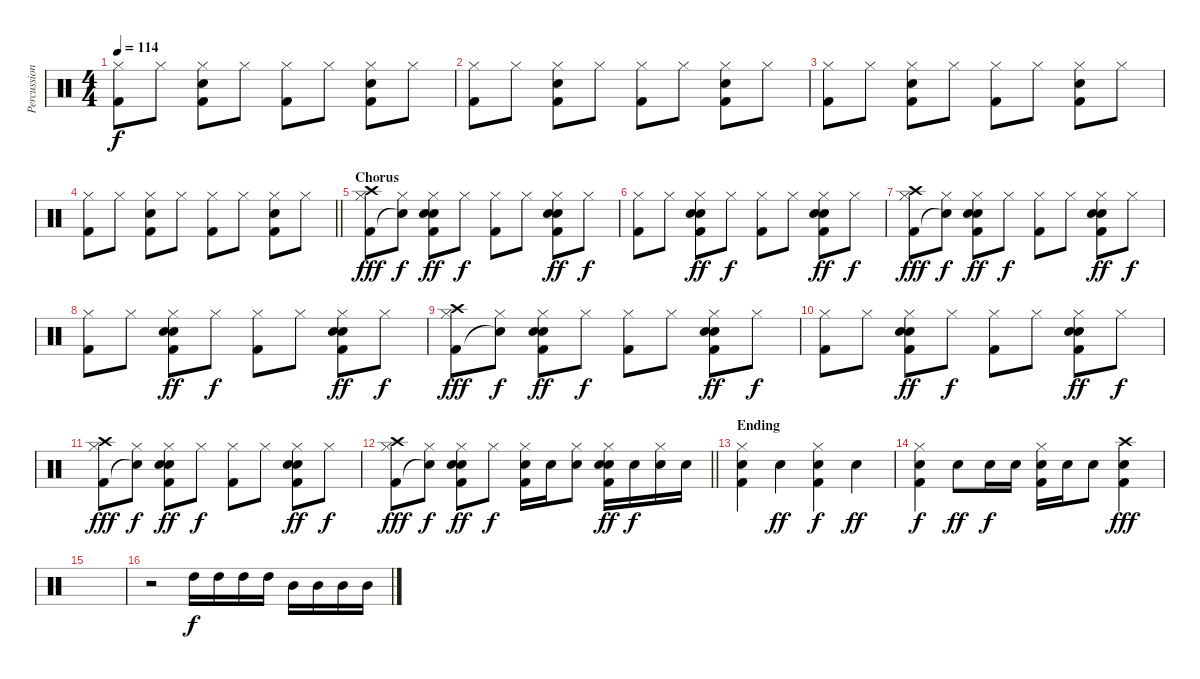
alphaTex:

\track ("Percussion" "Percussion") {instrument percussion}
\staff {score}
\articulation defaults
\ts (4 4)
\tempo 114
\clef neutral
\ks c
("Hi-Hat (closed)" "Kick (hit) 2").8{dy f} "Hi-Hat (closed)".8 ("Hi-Hat (closed)" "Snare (hit) 2" "Kick (hit) 2").8 "Hi-Hat (closed)".8 ("Hi-Hat (closed)" "Kick (hit) 2").8 "Hi-Hat (closed)".8 ("Hi-Hat (closed)" "Snare (hit) 2" "Kick (hit) 2").8 "Hi-Hat (closed)".8 |
("Hi-Hat (closed)" "Kick (hit) 2").8 "Hi-Hat (closed)".8 ("Hi-Hat (closed)" "Snare (hit) 2" "Kick (hit) 2").8 "Hi-Hat (closed)".8 ("Hi-Hat (closed)" "Kick (hit) 2").8 "Hi-Hat (closed)".8 ("Hi-Hat (closed)" "Snare (hit) 2" "Kick (hit) 2").8 "Hi-Hat (closed)".8 |
("Hi-Hat (closed)" "Kick (hit) 2").8 "Hi-Hat (closed)".8 ("Hi-Hat (closed)" "Snare (hit) 2" "Kick (hit) 2").8 "Hi-Hat (closed)".8 ("Hi-Hat (closed)" "Kick (hit) 2").8 "Hi-Hat (closed)".8 ("Hi-Hat (closed)" "Snare (hit) 2" "Kick (hit) 2").8 "Hi-Hat (closed)".8 |
\barLineRight lightlight
("Hi-Hat (closed)" "Kick (hit) 2").8 "Hi-Hat (closed)".8 ("Hi-Hat (closed)" "Snare (hit) 2" "Kick (hit) 2").8 "Hi-Hat (closed)".8 ("Hi-Hat (closed)" "Kick (hit) 2").8 "Hi-Hat (closed)".8 ("Hi-Hat (closed)" "Snare (hit) 2" "Kick (hit) 2").8 "Hi-Hat (closed)".8 |
\section ("" "Chorus")
("Hi-Hat (closed)" "Kick (hit) 2" "Crash high (hit)").8{dy fff} ("Hi-Hat (closed)" "Snare (hit)"{t}).8{dy f} ("Hand Clap (hit)" "Hi-Hat (closed)" "Snare (hit) 2" "Kick (hit) 2").8{dy ff} "Hi-Hat (closed)".8{dy f} ("Hi-Hat (closed)" "Kick (hit) 2").8 "Hi-Hat (closed)".8 ("Hand Clap (hit)" "Hi-Hat (closed)" "Snare (hit) 2" "Kick (hit) 2").8{dy ff} "Hi-Hat (closed)".8{dy f} |
("Hi-Hat (closed)" "Kick (hit) 2").8 "Hi-Hat (closed)".8 ("Hand Clap (hit)" "Hi-Hat (closed)" "Snare (hit) 2" "Kick (hit) 2").8{dy ff} "Hi-Hat (closed)".8{dy f} ("Hi-Hat (closed)" "Kick (hit) 2").8 "Hi-Hat (closed)".8 ("Hand Clap (hit)" "Hi-Hat (closed)" "Snare (hit) 2" "Kick (hit) 2").8{dy ff} "Hi-Hat (closed)".8{dy f} |
("Hi-Hat (closed)" "Kick (hit) 2" "Crash high (hit)").8{dy fff} ("Hi-Hat (closed)" "Snare (hit)"{t}).8{dy f} ("Hand Clap (hit)" "Hi-Hat (closed)" "Snare (hit) 2" "Kick (hit) 2").8{dy ff} "Hi-Hat (closed)".8{dy f} ("Hi-Hat (closed)" "Kick (hit) 2").8 "Hi-Hat (closed)".8 ("Hand Clap (hit)" "Hi-Hat (closed)" "Snare (hit) 2" "Kick (hit) 2").8{dy ff} "Hi-Hat (closed)".8{dy f} |
("Hi-Hat (closed)" "Kick (hit) 2").8 "Hi-Hat (closed)".8 ("Hand Clap (hit)" "Hi-Hat (closed)" "Snare (hit) 2" "Kick (hit) 2").8{dy ff} "Hi-Hat (closed)".8{dy f} ("Hi-Hat (closed)" "Kick (hit) 2").8 "Hi-Hat (closed)".8 ("Hand Clap (hit)" "Hi-Hat (closed)" "Snare (hit) 2" "Kick (hit) 2").8{dy ff} "Hi-Hat (closed)".8{dy f} |
("Hi-Hat (closed)" "Kick (hit) 2" "Crash high (hit)").8{dy fff} ("Hi-Hat (closed)" "Snare (hit)"{t}).8{dy f} ("Hand Clap (hit)" "Hi-Hat (closed)" "Snare (hit) 2" "Kick (hit) 2").8{dy ff} "Hi-Hat (closed)".8{dy f} ("Hi-Hat (closed)" "Kick (hit) 2").8 "Hi-Hat (closed)".8 ("Hand Clap (hit)" "Hi-Hat (closed)" "Snare (hit) 2" "Kick (hit) 2").8{dy ff} "Hi-Hat (closed)".8{dy f} |
("Hi-Hat (closed)" "Kick (hit) 2").8 "Hi-Hat (closed)".8 ("Hand Clap (hit)" "Hi-Hat (closed)" "Snare (hit) 2" "Kick (hit) 2").8{dy ff} "Hi-Hat (closed)".8{dy f} ("Hi-Hat (closed)" "Kick (hit) 2").8 "Hi-Hat (closed)".8 ("Hand Clap (hit)" "Hi-Hat (closed)" "Snare (hit) 2" "Kick (hit) 2").8{dy ff} "Hi-Hat (closed)".8{dy f} |
("Hi-Hat (closed)" "Kick (hit) 2" "Crash high (hit)").8{dy fff} ("Hi-Hat (closed)" "Snare (hit)"{t}).8{dy f} ("Hand Clap (hit)" "Hi-Hat (closed)" "Snare (hit) 2" "Kick (hit) 2").8{dy ff} "Hi-Hat (closed)".8{dy f} ("Hi-Hat (closed)" "Kick (hit) 2").8 "Hi-Hat (closed)".8 ("Hand Clap (hit)" "Hi-Hat (closed)" "Snare (hit) 2" "Kick (hit) 2").8{dy ff} "Hi-Hat (closed)".8{dy f} |
\barLineRight lightlight
("Hi-Hat (closed)" "Kick (hit) 2" "Crash high (hit)").8{dy fff} ("Hi-Hat (closed)" "Snare (hit)"{t}).8{dy f} ("Hand Clap (hit)" "Hi-Hat (closed)" "Snare (hit) 2" "Kick (hit) 2").8{dy ff} "Hi-Hat (closed)".8{dy f} ("Hi-Hat (closed)" "Snare (hit) 2" "Kick (hit) 2").16 "Snare (hit) 2".16 ("Hi-Hat (closed)" "Snare (hit) 2").8 ("Hand Clap (hit)" "Hi-Hat (closed)" "Snare (hit) 2" "Kick (hit) 2").16{dy ff} "Snare (hit) 2".16{dy f} ("Hi-Hat (closed)" "Snare (hit) 2").16 "Snare (hit) 2".16 |
\section ("" "Ending")
("Hi-Hat (closed)" "Snare (hit) 2" "Kick (hit) 2").4 "Hand Clap (hit)".4{dy ff} ("Hi-Hat (closed)" "Snare (hit) 2" "Kick (hit) 2").4{dy f} "Hand Clap (hit)".4{dy ff} |
("Hi-Hat (closed)" "Snare (hit) 2" "Kick (hit) 2").4{dy f} "Hand Clap (hit)".8{dy ff} "Snare (hit) 2".16{dy f} "Snare (hit) 2".16 ("Hi-Hat (closed)" "Snare (hit) 2" "Kick (hit) 2").16 "Snare (hit) 2".16 "Snare (hit) 2".8 ("Snare (hit) 2" "Kick (hit) 2" "Crash high (hit)").4{dy fff} |
|
r.2 "High Tom (hit)".16{dy f} "High Tom (hit)".16 "High Tom (hit)".16 "High Tom (hit)".16 "Mid Tom (hit)".16 "Mid Tom (hit)".16 "Mid Tom (hit)".16 "Mid Tom (hit)".16
